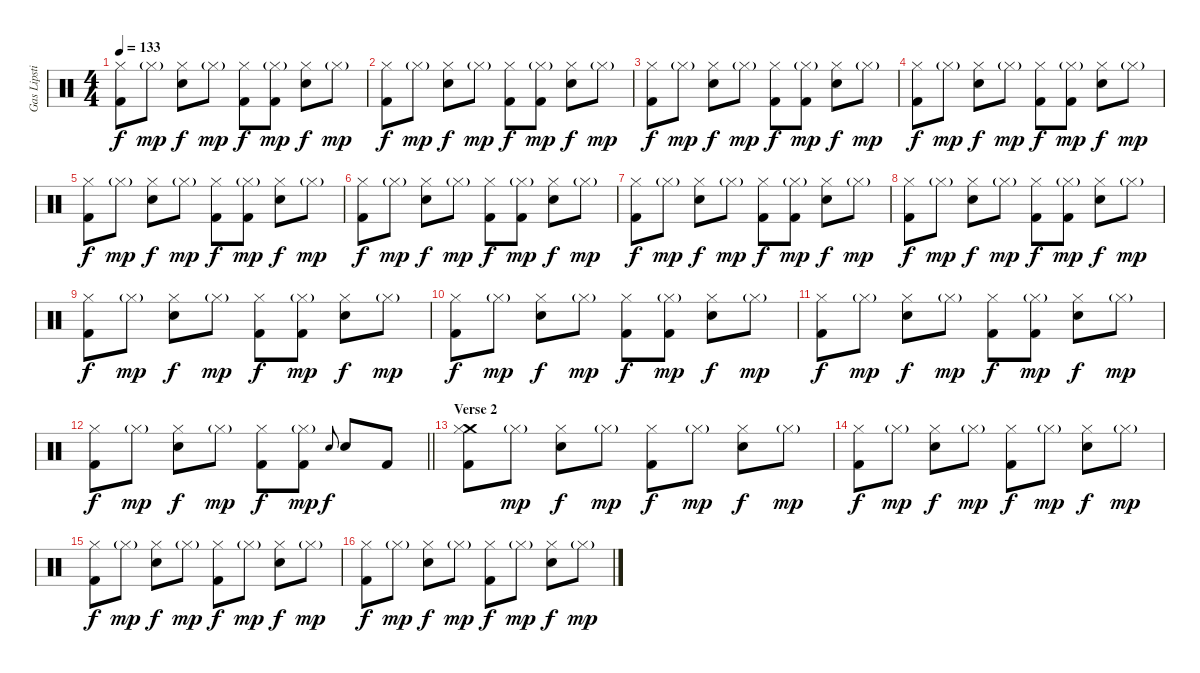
\track ("Gas Lipstick (Drums)" "Gas Lipsti") {instrument percussion}
\staff {score}
\articulation defaults
\ts (4 4)
\tempo 133
\clef neutral
\ks c
("Hi-Hat (closed)" "Kick (hit) 2").8{dy f} "Hi-Hat (closed)"{g}.8{dy mp} ("Hi-Hat (closed)" "Snare (hit) 2").8{dy f} "Hi-Hat (closed)"{g}.8{dy mp} ("Hi-Hat (closed)" "Kick (hit) 2").8{dy f} ("Hi-Hat (closed)"{g} "Kick (hit) 2").8{dy mp} ("Hi-Hat (closed)" "Snare (hit) 2").8{dy f} "Hi-Hat (closed)"{g}.8{dy mp} |
("Hi-Hat (closed)" "Kick (hit) 2").8{dy f} "Hi-Hat (closed)"{g}.8{dy mp} ("Hi-Hat (closed)" "Snare (hit) 2").8{dy f} "Hi-Hat (closed)"{g}.8{dy mp} ("Hi-Hat (closed)" "Kick (hit) 2").8{dy f} ("Hi-Hat (closed)"{g} "Kick (hit) 2").8{dy mp} ("Hi-Hat (closed)" "Snare (hit) 2").8{dy f} "Hi-Hat (closed)"{g}.8{dy mp} |
("Hi-Hat (closed)" "Kick (hit) 2").8{dy f} "Hi-Hat (closed)"{g}.8{dy mp} ("Hi-Hat (closed)" "Snare (hit) 2").8{dy f} "Hi-Hat (closed)"{g}.8{dy mp} ("Hi-Hat (closed)" "Kick (hit) 2").8{dy f} ("Hi-Hat (closed)"{g} "Kick (hit) 2").8{dy mp} ("Hi-Hat (closed)" "Snare (hit) 2").8{dy f} "Hi-Hat (closed)"{g}.8{dy mp} |
("Hi-Hat (closed)" "Kick (hit) 2").8{dy f} "Hi-Hat (closed)"{g}.8{dy mp} ("Hi-Hat (closed)" "Snare (hit) 2").8{dy f} "Hi-Hat (closed)"{g}.8{dy mp} ("Hi-Hat (closed)" "Kick (hit) 2").8{dy f} ("Hi-Hat (closed)"{g} "Kick (hit) 2").8{dy mp} ("Hi-Hat (closed)" "Snare (hit) 2").8{dy f} "Hi-Hat (closed)"{g}.8{dy mp} |
("Hi-Hat (closed)" "Kick (hit) 2").8{dy f} "Hi-Hat (closed)"{g}.8{dy mp} ("Hi-Hat (closed)" "Snare (hit) 2").8{dy f} "Hi-Hat (closed)"{g}.8{dy mp} ("Hi-Hat (closed)" "Kick (hit) 2").8{dy f} ("Hi-Hat (closed)"{g} "Kick (hit) 2").8{dy mp} ("Hi-Hat (closed)" "Snare (hit) 2").8{dy f} "Hi-Hat (closed)"{g}.8{dy mp} |
("Hi-Hat (closed)" "Kick (hit) 2").8{dy f} "Hi-Hat (closed)"{g}.8{dy mp} ("Hi-Hat (closed)" "Snare (hit) 2").8{dy f} "Hi-Hat (closed)"{g}.8{dy mp} ("Hi-Hat (closed)" "Kick (hit) 2").8{dy f} ("Hi-Hat (closed)"{g} "Kick (hit) 2").8{dy mp} ("Hi-Hat (closed)" "Snare (hit) 2").8{dy f} "Hi-Hat (closed)"{g}.8{dy mp} |
("Hi-Hat (closed)" "Kick (hit) 2").8{dy f} "Hi-Hat (closed)"{g}.8{dy mp} ("Hi-Hat (closed)" "Snare (hit) 2").8{dy f} "Hi-Hat (closed)"{g}.8{dy mp} ("Hi-Hat (closed)" "Kick (hit) 2").8{dy f} ("Hi-Hat (closed)"{g} "Kick (hit) 2").8{dy mp} ("Hi-Hat (closed)" "Snare (hit) 2").8{dy f} "Hi-Hat (closed)"{g}.8{dy mp} |
("Hi-Hat (closed)" "Kick (hit) 2").8{dy f} "Hi-Hat (closed)"{g}.8{dy mp} ("Hi-Hat (closed)" "Snare (hit) 2").8{dy f} "Hi-Hat (closed)"{g}.8{dy mp} ("Hi-Hat (closed)" "Kick (hit) 2").8{dy f} ("Hi-Hat (closed)"{g} "Kick (hit) 2").8{dy mp} ("Hi-Hat (closed)" "Snare (hit) 2").8{dy f} "Hi-Hat (closed)"{g}.8{dy mp} |
("Hi-Hat (closed)" "Kick (hit) 2").8{dy f} "Hi-Hat (closed)"{g}.8{dy mp} ("Hi-Hat (closed)" "Snare (hit) 2").8{dy f} "Hi-Hat (closed)"{g}.8{dy mp} ("Hi-Hat (closed)" "Kick (hit) 2").8{dy f} ("Hi-Hat (closed)"{g} "Kick (hit) 2").8{dy mp} ("Hi-Hat (closed)" "Snare (hit) 2").8{dy f} "Hi-Hat (closed)"{g}.8{dy mp} |
("Hi-Hat (closed)" "Kick (hit) 2").8{dy f} "Hi-Hat (closed)"{g}.8{dy mp} ("Hi-Hat (closed)" "Snare (hit) 2").8{dy f} "Hi-Hat (closed)"{g}.8{dy mp} ("Hi-Hat (closed)" "Kick (hit) 2").8{dy f} ("Hi-Hat (closed)"{g} "Kick (hit) 2").8{dy mp} ("Hi-Hat (closed)" "Snare (hit) 2").8{dy f} "Hi-Hat (closed)"{g}.8{dy mp} |
("Hi-Hat (closed)" "Kick (hit) 2").8{dy f} "Hi-Hat (closed)"{g}.8{dy mp} ("Hi-Hat (closed)" "Snare (hit) 2").8{dy f} "Hi-Hat (closed)"{g}.8{dy mp} ("Hi-Hat (closed)" "Kick (hit) 2").8{dy f} ("Hi-Hat (closed)"{g} "Kick (hit) 2").8{dy mp} ("Hi-Hat (closed)" "Snare (hit) 2").8{dy f} "Hi-Hat (closed)"{g}.8{dy mp} |
\barLineRight lightlight
("Hi-Hat (closed)" "Kick (hit) 2").8{dy f} "Hi-Hat (closed)"{g}.8{dy mp} ("Hi-Hat (closed)" "Snare (hit) 2").8{dy f} "Hi-Hat (closed)"{g}.8{dy mp} ("Hi-Hat (closed)" "Kick (hit) 2").8{dy f} ("Hi-Hat (closed)"{g} "Kick (hit) 2").8{dy mp} "Snare (hit) 2".8{gr onbeat dy f} "Snare (hit) 2".8 "Kick (hit) 2".8 |
\section ("" "Verse 2")
("Crash medium (hit)" "Hi-Hat (closed)" "Kick (hit) 2").8 "Hi-Hat (closed)"{g}.8{dy mp} ("Hi-Hat (closed)" "Snare (hit) 2").8{dy f} "Hi-Hat (closed)"{g}.8{dy mp} ("Hi-Hat (closed)" "Kick (hit) 2").8{dy f} "Hi-Hat (closed)"{g}.8{dy mp} ("Hi-Hat (closed)" "Snare (hit) 2").8{dy f} "Hi-Hat (closed)"{g}.8{dy mp} |
("Hi-Hat (closed)" "Kick (hit) 2").8{dy f} "Hi-Hat (closed)"{g}.8{dy mp} ("Hi-Hat (closed)" "Snare (hit) 2").8{dy f} "Hi-Hat (closed)"{g}.8{dy mp} ("Hi-Hat (closed)" "Kick (hit) 2").8{dy f} "Hi-Hat (closed)"{g}.8{dy mp} ("Hi-Hat (closed)" "Snare (hit) 2").8{dy f} "Hi-Hat (closed)"{g}.8{dy mp} |
("Hi-Hat (closed)" "Kick (hit) 2").8{dy f} "Hi-Hat (closed)"{g}.8{dy mp} ("Hi-Hat (closed)" "Snare (hit) 2").8{dy f} "Hi-Hat (closed)"{g}.8{dy mp} ("Hi-Hat (closed)" "Kick (hit) 2").8{dy f} "Hi-Hat (closed)"{g}.8{dy mp} ("Hi-Hat (closed)" "Snare (hit) 2").8{dy f} "Hi-Hat (closed)"{g}.8{dy mp} |
("Hi-Hat (closed)" "Kick (hit) 2").8{dy f} "Hi-Hat (closed)"{g}.8{dy mp} ("Hi-Hat (closed)" "Snare (hit) 2").8{dy f} "Hi-Hat (closed)"{g}.8{dy mp} ("Hi-Hat (closed)" "Kick (hit) 2").8{dy f} "Hi-Hat (closed)"{g}.8{dy mp} ("Hi-Hat (closed)" "Snare (hit) 2").8{dy f} "Hi-Hat (closed)"{g}.8{dy mp}
